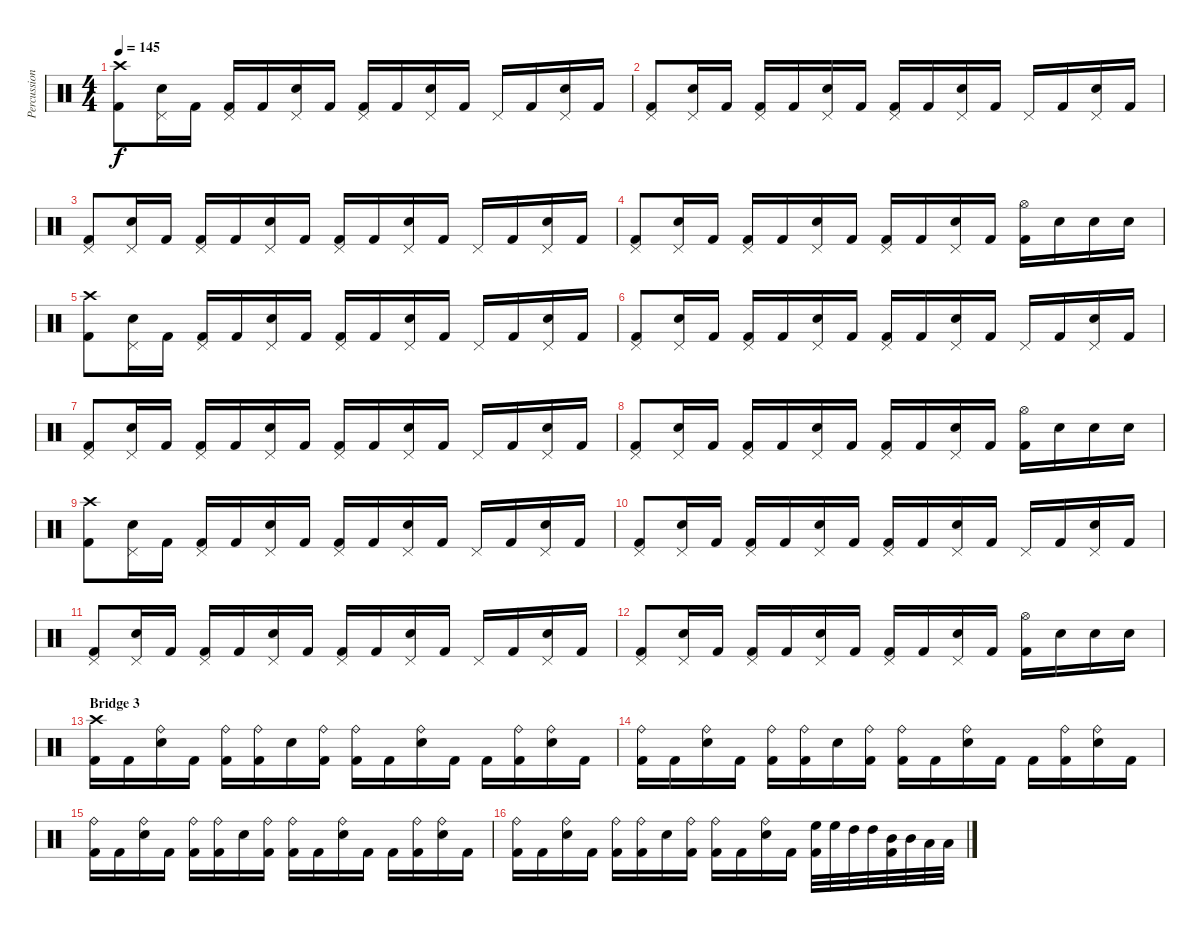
\track ("Percussion" "Percussion") {instrument percussion}
\staff {score}
\articulation defaults
\ts (4 4)
\tempo 145
\clef neutral
\ks c
("Kick (hit) 2" "Crash high (hit)").8{dy f} ("Electric Snare (hit)" "Pedal Hi-Hat (hit)").16 "Kick (hit) 2".16 ("Kick (hit) 2" "Pedal Hi-Hat (hit)").16 "Kick (hit) 2".16 ("Electric Snare (hit)" "Pedal Hi-Hat (hit)").16 "Kick (hit) 2".16 ("Kick (hit) 2" "Pedal Hi-Hat (hit)").16 "Kick (hit) 2".16 ("Electric Snare (hit)" "Pedal Hi-Hat (hit)").16 "Kick (hit) 2".16 "Pedal Hi-Hat (hit)".16 "Kick (hit) 2".16 ("Electric Snare (hit)" "Pedal Hi-Hat (hit)").16 "Kick (hit) 2".16 |
("Kick (hit) 2" "Pedal Hi-Hat (hit)").8 ("Electric Snare (hit)" "Pedal Hi-Hat (hit)").16 "Kick (hit) 2".16 ("Kick (hit) 2" "Pedal Hi-Hat (hit)").16 "Kick (hit) 2".16 ("Electric Snare (hit)" "Pedal Hi-Hat (hit)").16 "Kick (hit) 2".16 ("Kick (hit) 2" "Pedal Hi-Hat (hit)").16 "Kick (hit) 2".16 ("Electric Snare (hit)" "Pedal Hi-Hat (hit)").16 "Kick (hit) 2".16 "Pedal Hi-Hat (hit)".16 "Kick (hit) 2".16 ("Electric Snare (hit)" "Pedal Hi-Hat (hit)").16 "Kick (hit) 2".16 |
("Kick (hit) 2" "Pedal Hi-Hat (hit)").8 ("Electric Snare (hit)" "Pedal Hi-Hat (hit)").16 "Kick (hit) 2".16 ("Kick (hit) 2" "Pedal Hi-Hat (hit)").16 "Kick (hit) 2".16 ("Electric Snare (hit)" "Pedal Hi-Hat (hit)").16 "Kick (hit) 2".16 ("Kick (hit) 2" "Pedal Hi-Hat (hit)").16 "Kick (hit) 2".16 ("Electric Snare (hit)" "Pedal Hi-Hat (hit)").16 "Kick (hit) 2".16 "Pedal Hi-Hat (hit)".16 "Kick (hit) 2".16 ("Electric Snare (hit)" "Pedal Hi-Hat (hit)").16 "Kick (hit) 2".16 |
("Kick (hit) 2" "Pedal Hi-Hat (hit)").8 ("Electric Snare (hit)" "Pedal Hi-Hat (hit)").16 "Kick (hit) 2".16 ("Kick (hit) 2" "Pedal Hi-Hat (hit)").16 "Kick (hit) 2".16 ("Electric Snare (hit)" "Pedal Hi-Hat (hit)").16 "Kick (hit) 2".16 ("Kick (hit) 2" "Pedal Hi-Hat (hit)").16 "Kick (hit) 2".16 ("Electric Snare (hit)" "Pedal Hi-Hat (hit)").16 "Kick (hit) 2".16 ("Kick (hit) 2" "Hi-Hat (open)").16 "Electric Snare (hit)".16 "Electric Snare (hit)".16 "Electric Snare (hit)".16 |
("Kick (hit) 2" "Crash high (hit)").8 ("Electric Snare (hit)" "Pedal Hi-Hat (hit)").16 "Kick (hit) 2".16 ("Kick (hit) 2" "Pedal Hi-Hat (hit)").16 "Kick (hit) 2".16 ("Electric Snare (hit)" "Pedal Hi-Hat (hit)").16 "Kick (hit) 2".16 ("Kick (hit) 2" "Pedal Hi-Hat (hit)").16 "Kick (hit) 2".16 ("Electric Snare (hit)" "Pedal Hi-Hat (hit)").16 "Kick (hit) 2".16 "Pedal Hi-Hat (hit)".16 "Kick (hit) 2".16 ("Electric Snare (hit)" "Pedal Hi-Hat (hit)").16 "Kick (hit) 2".16 |
("Kick (hit) 2" "Pedal Hi-Hat (hit)").8 ("Electric Snare (hit)" "Pedal Hi-Hat (hit)").16 "Kick (hit) 2".16 ("Kick (hit) 2" "Pedal Hi-Hat (hit)").16 "Kick (hit) 2".16 ("Electric Snare (hit)" "Pedal Hi-Hat (hit)").16 "Kick (hit) 2".16 ("Kick (hit) 2" "Pedal Hi-Hat (hit)").16 "Kick (hit) 2".16 ("Electric Snare (hit)" "Pedal Hi-Hat (hit)").16 "Kick (hit) 2".16 "Pedal Hi-Hat (hit)".16 "Kick (hit) 2".16 ("Electric Snare (hit)" "Pedal Hi-Hat (hit)").16 "Kick (hit) 2".16 |
("Kick (hit) 2" "Pedal Hi-Hat (hit)").8 ("Electric Snare (hit)" "Pedal Hi-Hat (hit)").16 "Kick (hit) 2".16 ("Kick (hit) 2" "Pedal Hi-Hat (hit)").16 "Kick (hit) 2".16 ("Electric Snare (hit)" "Pedal Hi-Hat (hit)").16 "Kick (hit) 2".16 ("Kick (hit) 2" "Pedal Hi-Hat (hit)").16 "Kick (hit) 2".16 ("Electric Snare (hit)" "Pedal Hi-Hat (hit)").16 "Kick (hit) 2".16 "Pedal Hi-Hat (hit)".16 "Kick (hit) 2".16 ("Electric Snare (hit)" "Pedal Hi-Hat (hit)").16 "Kick (hit) 2".16 |
("Kick (hit) 2" "Pedal Hi-Hat (hit)").8 ("Electric Snare (hit)" "Pedal Hi-Hat (hit)").16 "Kick (hit) 2".16 ("Kick (hit) 2" "Pedal Hi-Hat (hit)").16 "Kick (hit) 2".16 ("Electric Snare (hit)" "Pedal Hi-Hat (hit)").16 "Kick (hit) 2".16 ("Kick (hit) 2" "Pedal Hi-Hat (hit)").16 "Kick (hit) 2".16 ("Electric Snare (hit)" "Pedal Hi-Hat (hit)").16 "Kick (hit) 2".16 ("Kick (hit) 2" "Hi-Hat (open)").16 "Electric Snare (hit)".16 "Electric Snare (hit)".16 "Electric Snare (hit)".16 |
("Kick (hit) 2" "Crash high (hit)").8 ("Electric Snare (hit)" "Pedal Hi-Hat (hit)").16 "Kick (hit) 2".16 ("Kick (hit) 2" "Pedal Hi-Hat (hit)").16 "Kick (hit) 2".16 ("Electric Snare (hit)" "Pedal Hi-Hat (hit)").16 "Kick (hit) 2".16 ("Kick (hit) 2" "Pedal Hi-Hat (hit)").16 "Kick (hit) 2".16 ("Electric Snare (hit)" "Pedal Hi-Hat (hit)").16 "Kick (hit) 2".16 "Pedal Hi-Hat (hit)".16 "Kick (hit) 2".16 ("Electric Snare (hit)" "Pedal Hi-Hat (hit)").16 "Kick (hit) 2".16 |
("Kick (hit) 2" "Pedal Hi-Hat (hit)").8 ("Electric Snare (hit)" "Pedal Hi-Hat (hit)").16 "Kick (hit) 2".16 ("Kick (hit) 2" "Pedal Hi-Hat (hit)").16 "Kick (hit) 2".16 ("Electric Snare (hit)" "Pedal Hi-Hat (hit)").16 "Kick (hit) 2".16 ("Kick (hit) 2" "Pedal Hi-Hat (hit)").16 "Kick (hit) 2".16 ("Electric Snare (hit)" "Pedal Hi-Hat (hit)").16 "Kick (hit) 2".16 "Pedal Hi-Hat (hit)".16 "Kick (hit) 2".16 ("Electric Snare (hit)" "Pedal Hi-Hat (hit)").16 "Kick (hit) 2".16 |
("Kick (hit) 2" "Pedal Hi-Hat (hit)").8 ("Electric Snare (hit)" "Pedal Hi-Hat (hit)").16 "Kick (hit) 2".16 ("Kick (hit) 2" "Pedal Hi-Hat (hit)").16 "Kick (hit) 2".16 ("Electric Snare (hit)" "Pedal Hi-Hat (hit)").16 "Kick (hit) 2".16 ("Kick (hit) 2" "Pedal Hi-Hat (hit)").16 "Kick (hit) 2".16 ("Electric Snare (hit)" "Pedal Hi-Hat (hit)").16 "Kick (hit) 2".16 "Pedal Hi-Hat (hit)".16 "Kick (hit) 2".16 ("Electric Snare (hit)" "Pedal Hi-Hat (hit)").16 "Kick (hit) 2".16 |
("Kick (hit) 2" "Pedal Hi-Hat (hit)").8 ("Electric Snare (hit)" "Pedal Hi-Hat (hit)").16 "Kick (hit) 2".16 ("Kick (hit) 2" "Pedal Hi-Hat (hit)").16 "Kick (hit) 2".16 ("Electric Snare (hit)" "Pedal Hi-Hat (hit)").16 "Kick (hit) 2".16 ("Kick (hit) 2" "Pedal Hi-Hat (hit)").16 "Kick (hit) 2".16 ("Electric Snare (hit)" "Pedal Hi-Hat (hit)").16 "Kick (hit) 2".16 ("Kick (hit) 2" "Hi-Hat (open)").16 "Electric Snare (hit)".16 "Electric Snare (hit)".16 "Electric Snare (hit)".16 |
\section ("" "Bridge 3")
("Kick (hit) 2" "Crash high (hit)").16 "Kick (hit) 2".16 ("Electric Snare (hit)" "Ride (bell)").16 "Kick (hit) 2".16 ("Kick (hit) 2" "Ride (bell)").16 ("Kick (hit) 2" "Ride (bell)").16 "Electric Snare (hit)".16 ("Kick (hit) 2" "Ride (bell)").16 ("Kick (hit) 2" "Ride (bell)").16 "Kick (hit) 2".16 ("Electric Snare (hit)" "Ride (bell)").16 "Kick (hit) 2".16 "Kick (hit) 2".16 ("Kick (hit) 2" "Ride (bell)").16 ("Electric Snare (hit)" "Ride (bell)").16 "Kick (hit) 2".16 |
("Kick (hit) 2" "Ride (bell)").16 "Kick (hit) 2".16 ("Electric Snare (hit)" "Ride (bell)").16 "Kick (hit) 2".16 ("Kick (hit) 2" "Ride (bell)").16 ("Kick (hit) 2" "Ride (bell)").16 "Electric Snare (hit)".16 ("Kick (hit) 2" "Ride (bell)").16 ("Kick (hit) 2" "Ride (bell)").16 "Kick (hit) 2".16 ("Electric Snare (hit)" "Ride (bell)").16 "Kick (hit) 2".16 "Kick (hit) 2".16 ("Kick (hit) 2" "Ride (bell)").16 ("Electric Snare (hit)" "Ride (bell)").16 "Kick (hit) 2".16 |
("Kick (hit) 2" "Ride (bell)").16 "Kick (hit) 2".16 ("Electric Snare (hit)" "Ride (bell)").16 "Kick (hit) 2".16 ("Kick (hit) 2" "Ride (bell)").16 ("Kick (hit) 2" "Ride (bell)").16 "Electric Snare (hit)".16 ("Kick (hit) 2" "Ride (bell)").16 ("Kick (hit) 2" "Ride (bell)").16 "Kick (hit) 2".16 ("Electric Snare (hit)" "Ride (bell)").16 "Kick (hit) 2".16 "Kick (hit) 2".16 ("Kick (hit) 2" "Ride (bell)").16 ("Electric Snare (hit)" "Ride (bell)").16 "Kick (hit) 2".16 |
("Kick (hit) 2" "Ride (bell)").16 "Kick (hit) 2".16 ("Electric Snare (hit)" "Ride (bell)").16 "Kick (hit) 2".16 ("Kick (hit) 2" "Ride (bell)").16 ("Kick (hit) 2" "Ride (bell)").16 "Electric Snare (hit)".16 ("Kick (hit) 2" "Ride (bell)").16 ("Kick (hit) 2" "Ride (bell)").16 "Kick (hit) 2".16 ("Electric Snare (hit)" "Ride (bell)").16 "Kick (hit) 2".16 ("High Floor Tom (hit)" "Kick (hit) 2").32 "High Floor Tom (hit)".32 "High Tom (hit)".32 "High Tom (hit)".32 ("Mid Tom (hit)" "Kick (hit) 2").32 "Mid Tom (hit)".32 "Low Tom (hit)".32 "Low Tom (hit)".32
